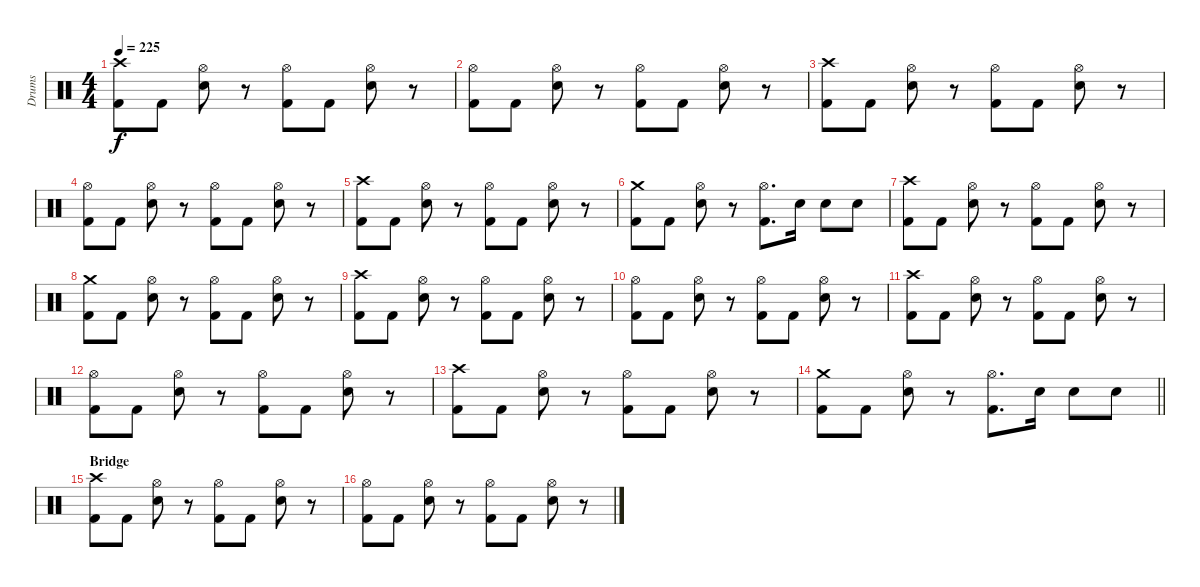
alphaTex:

\track ("Drums" "Drums") {instrument percussion}
\staff {score}
\articulation defaults
\ts (4 4)
\tempo 225
\clef neutral
\ks c
("Crash high (hit)" "Kick (hit) 2").8{dy f} "Kick (hit) 2".8 ("Hi-Hat (open)" "Electric Snare (hit)").8 r.8 ("Hi-Hat (open)" "Kick (hit) 2").8 "Kick (hit) 2".8 ("Hi-Hat (open)" "Electric Snare (hit)").8 r.8 |
("Hi-Hat (open)" "Kick (hit) 2").8 "Kick (hit) 2".8 ("Hi-Hat (open)" "Electric Snare (hit)").8 r.8 ("Hi-Hat (open)" "Kick (hit) 2").8 "Kick (hit) 2".8 ("Hi-Hat (open)" "Electric Snare (hit)").8 r.8 |
("Crash high (hit)" "Kick (hit) 2").8 "Kick (hit) 2".8 ("Hi-Hat (open)" "Electric Snare (hit)").8 r.8 ("Hi-Hat (open)" "Kick (hit) 2").8 "Kick (hit) 2".8 ("Hi-Hat (open)" "Electric Snare (hit)").8 r.8 |
("Hi-Hat (open)" "Kick (hit) 2").8 "Kick (hit) 2".8 ("Hi-Hat (open)" "Electric Snare (hit)").8 r.8 ("Hi-Hat (open)" "Kick (hit) 2").8 "Kick (hit) 2".8 ("Hi-Hat (open)" "Electric Snare (hit)").8 r.8 |
("Crash high (hit)" "Kick (hit) 2").8 "Kick (hit) 2".8 ("Hi-Hat (open)" "Electric Snare (hit)").8 r.8 ("Hi-Hat (open)" "Kick (hit) 2").8 "Kick (hit) 2".8 ("Hi-Hat (open)" "Electric Snare (hit)").8 r.8 |
("Crash medium (hit)" "Kick (hit) 2").8 "Kick (hit) 2".8 ("Hi-Hat (open)" "Electric Snare (hit)").8 r.8 ("Hi-Hat (open)" "Kick (hit) 2").8{d} "Electric Snare (hit)".16 "Electric Snare (hit)".8 "Electric Snare (hit)".8 |
("Crash high (hit)" "Kick (hit) 2").8 "Kick (hit) 2".8 ("Hi-Hat (open)" "Electric Snare (hit)").8 r.8 ("Hi-Hat (open)" "Kick (hit) 2").8 "Kick (hit) 2".8 ("Hi-Hat (open)" "Electric Snare (hit)").8 r.8 |
("Crash medium (hit)" "Kick (hit) 2").8 "Kick (hit) 2".8 ("Hi-Hat (open)" "Electric Snare (hit)").8 r.8 ("Hi-Hat (open)" "Kick (hit) 2").8 "Kick (hit) 2".8 ("Hi-Hat (open)" "Electric Snare (hit)").8 r.8 |
("Crash high (hit)" "Kick (hit) 2").8 "Kick (hit) 2".8 ("Hi-Hat (open)" "Electric Snare (hit)").8 r.8 ("Hi-Hat (open)" "Kick (hit) 2").8 "Kick (hit) 2".8 ("Hi-Hat (open)" "Electric Snare (hit)").8 r.8 |
("Hi-Hat (open)" "Kick (hit) 2").8 "Kick (hit) 2".8 ("Hi-Hat (open)" "Electric Snare (hit)").8 r.8 ("Hi-Hat (open)" "Kick (hit) 2").8 "Kick (hit) 2".8 ("Hi-Hat (open)" "Electric Snare (hit)").8 r.8 |
("Crash high (hit)" "Kick (hit) 2").8 "Kick (hit) 2".8 ("Hi-Hat (open)" "Electric Snare (hit)").8 r.8 ("Hi-Hat (open)" "Kick (hit) 2").8 "Kick (hit) 2".8 ("Hi-Hat (open)" "Electric Snare (hit)").8 r.8 |
("Hi-Hat (open)" "Kick (hit) 2").8 "Kick (hit) 2".8 ("Hi-Hat (open)" "Electric Snare (hit)").8 r.8 ("Hi-Hat (open)" "Kick (hit) 2").8 "Kick (hit) 2".8 ("Hi-Hat (open)" "Electric Snare (hit)").8 r.8 |
("Crash high (hit)" "Kick (hit) 2").8 "Kick (hit) 2".8 ("Hi-Hat (open)" "Electric Snare (hit)").8 r.8 ("Hi-Hat (open)" "Kick (hit) 2").8 "Kick (hit) 2".8 ("Hi-Hat (open)" "Electric Snare (hit)").8 r.8 |
\barLineRight lightlight
("Crash medium (hit)" "Kick (hit) 2").8 "Kick (hit) 2".8 ("Hi-Hat (open)" "Electric Snare (hit)").8 r.8 ("Hi-Hat (open)" "Kick (hit) 2").8{d} "Electric Snare (hit)".16 "Electric Snare (hit)".8 "Electric Snare (hit)".8 |
\section ("" "Bridge")
("Crash high (hit)" "Kick (hit) 2").8 "Kick (hit) 2".8 ("Hi-Hat (open)" "Electric Snare (hit)").8 r.8 ("Hi-Hat (open)" "Kick (hit) 2").8 "Kick (hit) 2".8 ("Hi-Hat (open)" "Electric Snare (hit)").8 r.8 |
("Hi-Hat (open)" "Kick (hit) 2").8 "Kick (hit) 2".8 ("Hi-Hat (open)" "Electric Snare (hit)").8 r.8 ("Hi-Hat (open)" "Kick (hit) 2").8 "Kick (hit) 2".8 ("Hi-Hat (open)" "Electric Snare (hit)").8 r.8
